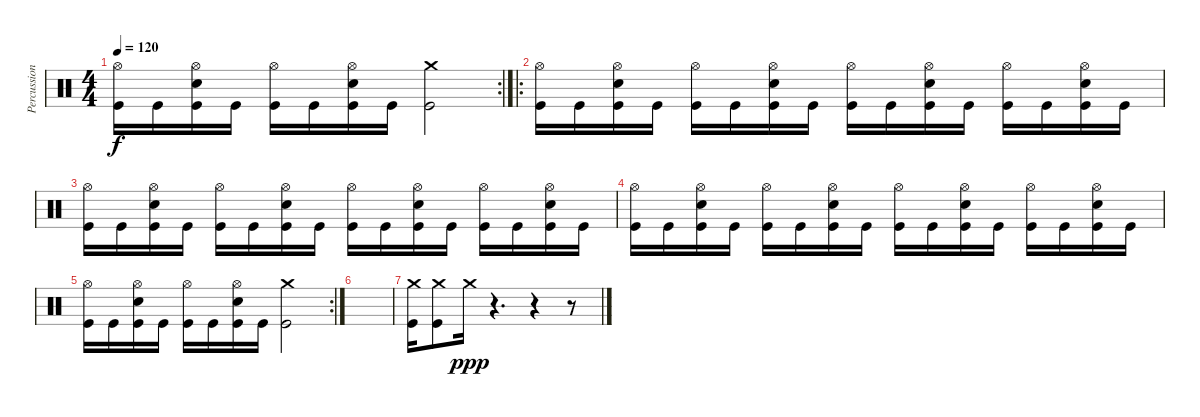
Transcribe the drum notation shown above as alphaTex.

\track ("Percussion" "Percussion") {instrument percussion}
\staff {score}
\articulation defaults
\rc 2
\ts (4 4)
\tempo 120
\clef neutral
\ks c
("Hi-Hat (open)" "Kick (hit)").16{dy f} "Kick (hit)".16 ("Hi-Hat (open)" "Snare (hit) 2" "Kick (hit)").16 "Kick (hit)".16 ("Hi-Hat (open)" "Kick (hit)").16 "Kick (hit)".16 ("Hi-Hat (open)" "Snare (hit) 2" "Kick (hit)").16 "Kick (hit)".16 ("Crash medium (hit)" "Kick (hit)").2 |
\ro
("Hi-Hat (open)" "Kick (hit)").16 "Kick (hit)".16 ("Hi-Hat (open)" "Snare (hit) 2" "Kick (hit)").16 "Kick (hit)".16 ("Hi-Hat (open)" "Kick (hit)").16 "Kick (hit)".16 ("Hi-Hat (open)" "Snare (hit) 2" "Kick (hit)").16 "Kick (hit)".16 ("Hi-Hat (open)" "Kick (hit)").16 "Kick (hit)".16 ("Hi-Hat (open)" "Snare (hit) 2" "Kick (hit)").16 "Kick (hit)".16 ("Hi-Hat (open)" "Kick (hit)").16 "Kick (hit)".16 ("Hi-Hat (open)" "Snare (hit) 2" "Kick (hit)").16 "Kick (hit)".16 |
("Hi-Hat (open)" "Kick (hit)").16 "Kick (hit)".16 ("Hi-Hat (open)" "Snare (hit) 2" "Kick (hit)").16 "Kick (hit)".16 ("Hi-Hat (open)" "Kick (hit)").16 "Kick (hit)".16 ("Hi-Hat (open)" "Snare (hit) 2" "Kick (hit)").16 "Kick (hit)".16 ("Hi-Hat (open)" "Kick (hit)").16 "Kick (hit)".16 ("Hi-Hat (open)" "Snare (hit) 2" "Kick (hit)").16 "Kick (hit)".16 ("Hi-Hat (open)" "Kick (hit)").16 "Kick (hit)".16 ("Hi-Hat (open)" "Snare (hit) 2" "Kick (hit)").16 "Kick (hit)".16 |
("Hi-Hat (open)" "Kick (hit)").16 "Kick (hit)".16 ("Hi-Hat (open)" "Snare (hit) 2" "Kick (hit)").16 "Kick (hit)".16 ("Hi-Hat (open)" "Kick (hit)").16 "Kick (hit)".16 ("Hi-Hat (open)" "Snare (hit) 2" "Kick (hit)").16 "Kick (hit)".16 ("Hi-Hat (open)" "Kick (hit)").16 "Kick (hit)".16 ("Hi-Hat (open)" "Snare (hit) 2" "Kick (hit)").16 "Kick (hit)".16 ("Hi-Hat (open)" "Kick (hit)").16 "Kick (hit)".16 ("Hi-Hat (open)" "Snare (hit) 2" "Kick (hit)").16 "Kick (hit)".16 |
\rc 2
("Hi-Hat (open)" "Kick (hit)").16 "Kick (hit)".16 ("Hi-Hat (open)" "Snare (hit) 2" "Kick (hit)").16 "Kick (hit)".16 ("Hi-Hat (open)" "Kick (hit)").16 "Kick (hit)".16 ("Hi-Hat (open)" "Snare (hit) 2" "Kick (hit)").16 "Kick (hit)".16 ("Crash medium (hit)" "Kick (hit)").2 |
|
("Crash medium (hit)" "Kick (hit)").16 ("Crash medium (hit)" "Kick (hit)").8 "Crash medium (hit)".16{dy ppp volume 0} r.4{d} r.4 r.8
